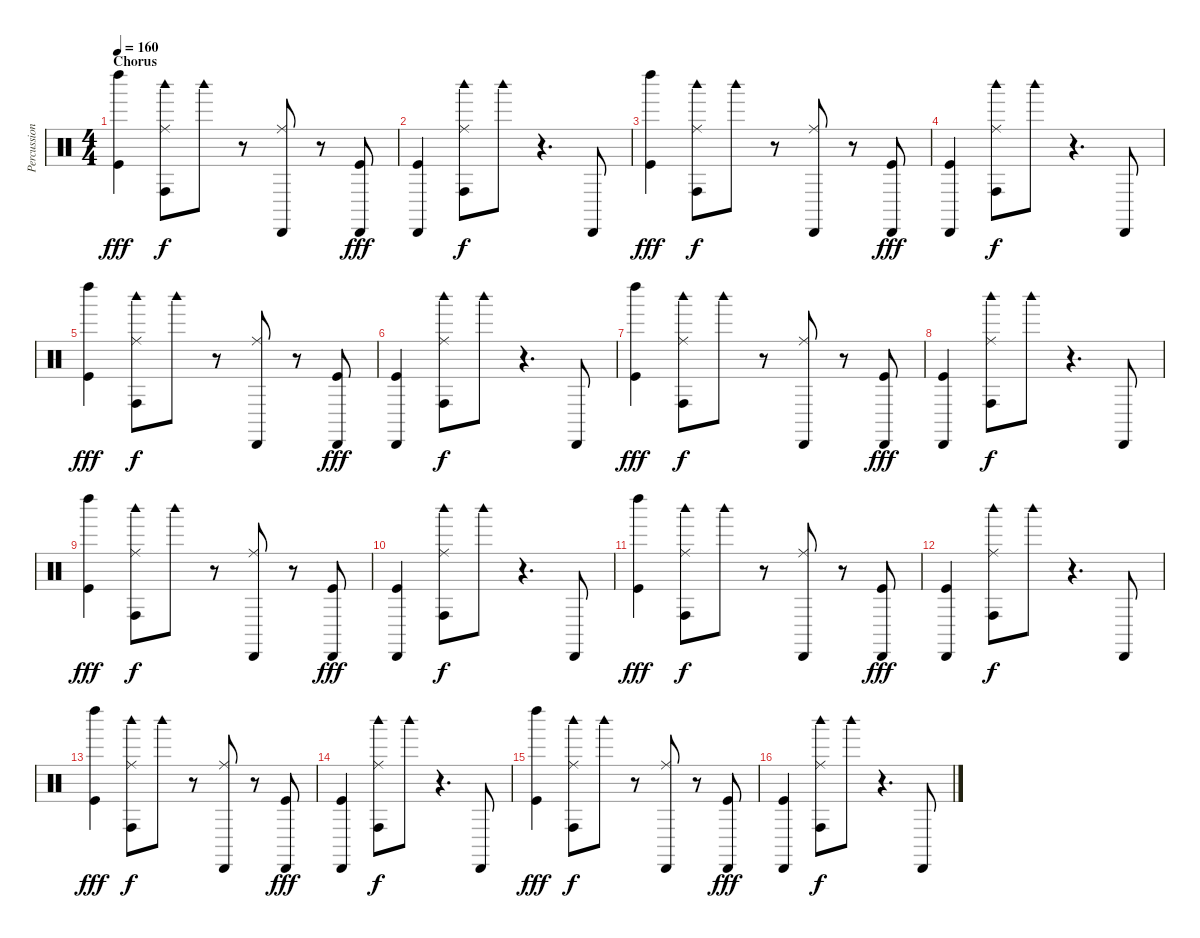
\track ("Percussion" "Percussion") {instrument percussion}
\staff {score}
\articulation defaults
\ts (4 4)
\section ("" "Chorus")
\tempo 160
\clef neutral
\ks c
("Left Maraca (hit)" "Kick (hit)").4{dy fff} ("Conga high (hit)" "Ride (middle)" "Woodblock high (hit)").8{dy f} "Woodblock high (hit)".8 r.8 ("Cabasa (hit)" "Ride (middle)").8 r.8 ("Cabasa (hit)" "Kick (hit)").8{dy fff} |
("Cabasa (hit)" "Kick (hit)").4 ("Conga high (hit)" "Ride (middle)" "Woodblock high (hit)").8{dy f} "Woodblock high (hit)".8 r.4{d} "Cabasa (hit)".8 |
("Left Maraca (hit)" "Kick (hit)").4{dy fff} ("Conga high (hit)" "Ride (middle)" "Woodblock high (hit)").8{dy f} "Woodblock high (hit)".8 r.8 ("Cabasa (hit)" "Ride (middle)").8 r.8 ("Cabasa (hit)" "Kick (hit)").8{dy fff} |
("Cabasa (hit)" "Kick (hit)").4 ("Conga high (hit)" "Ride (middle)" "Woodblock high (hit)").8{dy f} "Woodblock high (hit)".8 r.4{d} "Cabasa (hit)".8 |
("Left Maraca (hit)" "Kick (hit)").4{dy fff} ("Conga high (hit)" "Ride (middle)" "Woodblock high (hit)").8{dy f} "Woodblock high (hit)".8 r.8 ("Cabasa (hit)" "Ride (middle)").8 r.8 ("Cabasa (hit)" "Kick (hit)").8{dy fff} |
("Cabasa (hit)" "Kick (hit)").4 ("Conga high (hit)" "Ride (middle)" "Woodblock high (hit)").8{dy f} "Woodblock high (hit)".8 r.4{d} "Cabasa (hit)".8 |
("Left Maraca (hit)" "Kick (hit)").4{dy fff} ("Conga high (hit)" "Ride (middle)" "Woodblock high (hit)").8{dy f} "Woodblock high (hit)".8 r.8 ("Cabasa (hit)" "Ride (middle)").8 r.8 ("Cabasa (hit)" "Kick (hit)").8{dy fff} |
("Cabasa (hit)" "Kick (hit)").4 ("Conga high (hit)" "Ride (middle)" "Woodblock high (hit)").8{dy f} "Woodblock high (hit)".8 r.4{d} "Cabasa (hit)".8 |
("Left Maraca (hit)" "Kick (hit)").4{dy fff} ("Conga high (hit)" "Ride (middle)" "Woodblock high (hit)").8{dy f} "Woodblock high (hit)".8 r.8 ("Cabasa (hit)" "Ride (middle)").8 r.8 ("Cabasa (hit)" "Kick (hit)").8{dy fff} |
("Cabasa (hit)" "Kick (hit)").4 ("Conga high (hit)" "Ride (middle)" "Woodblock high (hit)").8{dy f} "Woodblock high (hit)".8 r.4{d} "Cabasa (hit)".8 |
("Left Maraca (hit)" "Kick (hit)").4{dy fff} ("Conga high (hit)" "Ride (middle)" "Woodblock high (hit)").8{dy f} "Woodblock high (hit)".8 r.8 ("Cabasa (hit)" "Ride (middle)").8 r.8 ("Cabasa (hit)" "Kick (hit)").8{dy fff} |
("Cabasa (hit)" "Kick (hit)").4 ("Conga high (hit)" "Ride (middle)" "Woodblock high (hit)").8{dy f} "Woodblock high (hit)".8 r.4{d} "Cabasa (hit)".8 |
("Left Maraca (hit)" "Kick (hit)").4{dy fff} ("Conga high (hit)" "Ride (middle)" "Woodblock high (hit)").8{dy f} "Woodblock high (hit)".8 r.8 ("Cabasa (hit)" "Ride (middle)").8 r.8 ("Cabasa (hit)" "Kick (hit)").8{dy fff} |
("Cabasa (hit)" "Kick (hit)").4 ("Conga high (hit)" "Ride (middle)" "Woodblock high (hit)").8{dy f} "Woodblock high (hit)".8 r.4{d} "Cabasa (hit)".8 |
("Left Maraca (hit)" "Kick (hit)").4{dy fff} ("Conga high (hit)" "Ride (middle)" "Woodblock high (hit)").8{dy f} "Woodblock high (hit)".8 r.8 ("Cabasa (hit)" "Ride (middle)").8 r.8 ("Cabasa (hit)" "Kick (hit)").8{dy fff} |
("Cabasa (hit)" "Kick (hit)").4 ("Conga high (hit)" "Ride (middle)" "Woodblock high (hit)").8{dy f} "Woodblock high (hit)".8 r.4{d} "Cabasa (hit)".8
